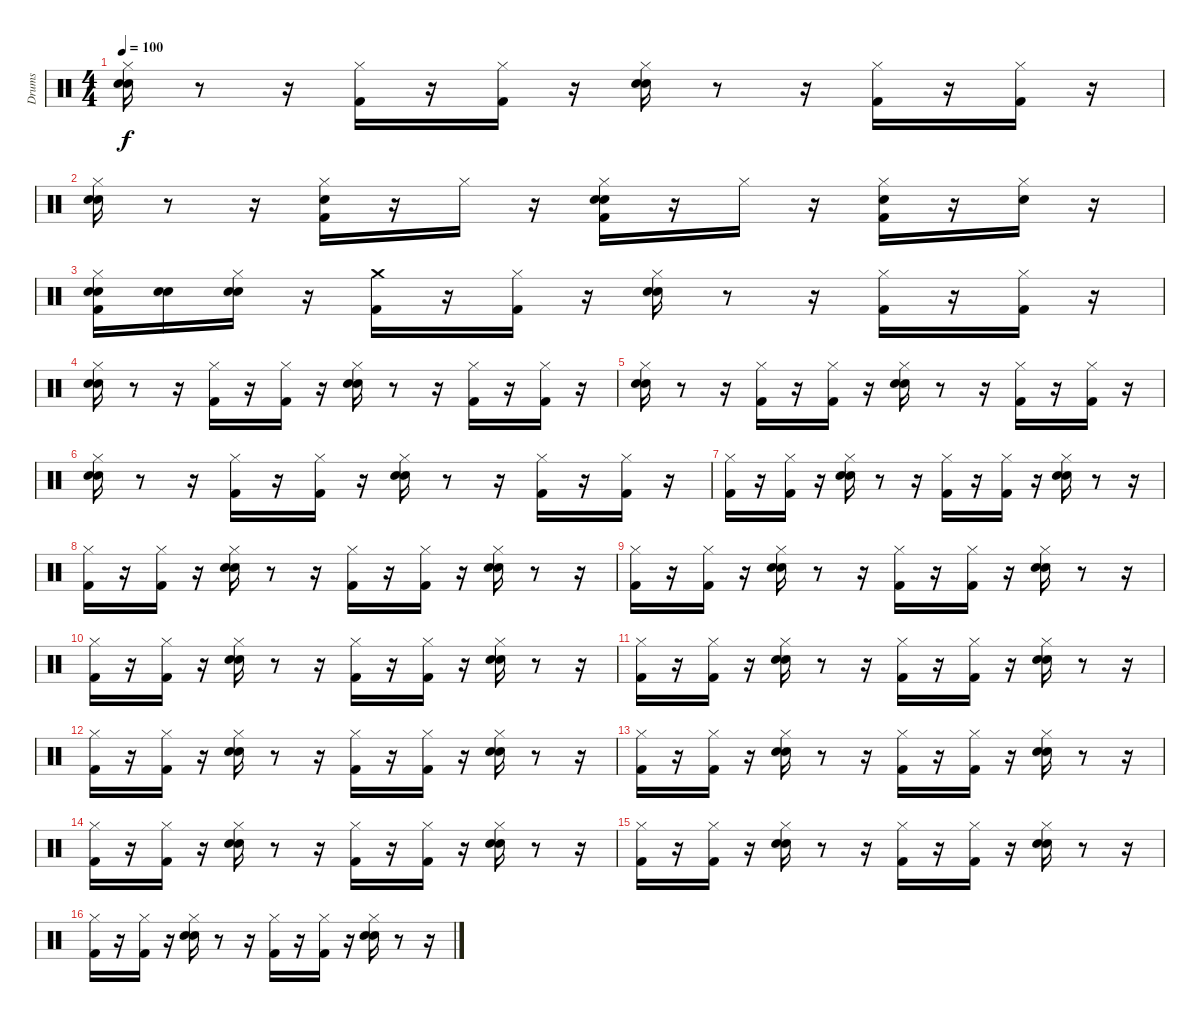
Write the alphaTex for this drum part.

\track ("Drums" "Drums") {instrument percussion}
\staff {score}
\articulation defaults
\ts (4 4)
\tempo 100
\clef neutral
\ks c
("Snare (hit) 2" "Hi-Hat (closed)" "Hand Clap (hit)").16{dy f} r.8 r.16 ("Hi-Hat (closed)" "Kick (hit) 2").16 r.16 ("Kick (hit) 2" "Hi-Hat (closed)").16 r.16 ("Snare (hit) 2" "Hand Clap (hit)" "Hi-Hat (closed)").16 r.8 r.16 ("Hi-Hat (closed)" "Kick (hit) 2").16 r.16 ("Kick (hit) 2" "Hi-Hat (closed)").16 r.16 |
("Snare (hit) 2" "Hi-Hat (closed)" "Hand Clap (hit)").16 r.8 r.16 ("Hi-Hat (closed)" "Snare (hit) 2" "Kick (hit) 2").16 r.16 "Hi-Hat (closed)".16 r.16 ("Hi-Hat (closed)" "Hand Clap (hit)" "Kick (hit) 2" "Snare (hit) 2").16 r.16 "Hi-Hat (closed)".16 r.16 ("Hi-Hat (closed)" "Snare (hit) 2" "Kick (hit) 2").16 r.16 ("Snare (hit) 2" "Hi-Hat (closed)").16 r.16 |
("Hand Clap (hit)" "Kick (hit) 2" "Hi-Hat (closed)" "Snare (hit) 2").16 ("Snare (hit)" "Snare (hit) 2").16 ("Snare (hit)" "Snare (hit) 2" "Hi-Hat (closed)").16 r.16 ("Crash medium (hit)" "Kick (hit) 2").16 r.16 ("Hi-Hat (closed)" "Kick (hit) 2").16 r.16 ("Hand Clap (hit)" "Hi-Hat (closed)" "Snare (hit) 2").16 r.8 r.16 ("Kick (hit) 2" "Hi-Hat (closed)").16 r.16 ("Kick (hit) 2" "Hi-Hat (closed)").16 r.16 |
("Hi-Hat (closed)" "Hand Clap (hit)" "Snare (hit) 2").16 r.8 r.16 ("Hi-Hat (closed)" "Kick (hit) 2").16 r.16 ("Kick (hit) 2" "Hi-Hat (closed)").16 r.16 ("Snare (hit) 2" "Hi-Hat (closed)" "Hand Clap (hit)").16 r.8 r.16 ("Hi-Hat (closed)" "Kick (hit) 2").16 r.16 ("Hi-Hat (closed)" "Kick (hit) 2").16 r.16 |
("Snare (hit) 2" "Hand Clap (hit)" "Hi-Hat (closed)").16 r.8 r.16 ("Hi-Hat (closed)" "Kick (hit) 2").16 r.16 ("Kick (hit) 2" "Hi-Hat (closed)").16 r.16 ("Snare (hit) 2" "Hi-Hat (closed)" "Hand Clap (hit)").16 r.8 r.16 ("Kick (hit) 2" "Hi-Hat (closed)").16 r.16 ("Hi-Hat (closed)" "Kick (hit) 2").16 r.16 |
("Hi-Hat (closed)" "Snare (hit) 2" "Hand Clap (hit)").16 r.8 r.16 ("Hi-Hat (closed)" "Kick (hit) 2").16 r.16 ("Kick (hit) 2" "Hi-Hat (closed)").16 r.16 ("Hi-Hat (closed)" "Hand Clap (hit)" "Snare (hit) 2").16 r.8 r.16 ("Hi-Hat (closed)" "Kick (hit) 2").16 r.16 ("Kick (hit) 2" "Hi-Hat (closed)").16 r.16 |
("Hi-Hat (closed)" "Kick (hit) 2").16 r.16 ("Hi-Hat (closed)" "Kick (hit) 2").16 r.16 ("Snare (hit) 2" "Hand Clap (hit)" "Hi-Hat (closed)").16 r.8 r.16 ("Kick (hit) 2" "Hi-Hat (closed)").16 r.16 ("Hi-Hat (closed)" "Kick (hit) 2").16 r.16 ("Hi-Hat (closed)" "Snare (hit) 2" "Hand Clap (hit)").16 r.8 r.16 |
("Kick (hit) 2" "Hi-Hat (closed)").16 r.16 ("Kick (hit) 2" "Hi-Hat (closed)").16 r.16 ("Hi-Hat (closed)" "Snare (hit) 2" "Hand Clap (hit)").16 r.8 r.16 ("Kick (hit) 2" "Hi-Hat (closed)").16 r.16 ("Kick (hit) 2" "Hi-Hat (closed)").16 r.16 ("Hand Clap (hit)" "Snare (hit) 2" "Hi-Hat (closed)").16 r.8 r.16 |
("Kick (hit) 2" "Hi-Hat (closed)").16 r.16 ("Hi-Hat (closed)" "Kick (hit) 2").16 r.16 ("Hi-Hat (closed)" "Hand Clap (hit)" "Snare (hit) 2").16 r.8 r.16 ("Hi-Hat (closed)" "Kick (hit) 2").16 r.16 ("Hi-Hat (closed)" "Kick (hit) 2").16 r.16 ("Snare (hit) 2" "Hand Clap (hit)" "Hi-Hat (closed)").16 r.8 r.16 |
("Kick (hit) 2" "Hi-Hat (closed)").16 r.16 ("Kick (hit) 2" "Hi-Hat (closed)").16 r.16 ("Snare (hit) 2" "Hand Clap (hit)" "Hi-Hat (closed)").16 r.8 r.16 ("Hi-Hat (closed)" "Kick (hit) 2").16 r.16 ("Kick (hit) 2" "Hi-Hat (closed)").16 r.16 ("Hi-Hat (closed)" "Snare (hit) 2" "Hand Clap (hit)").16 r.8 r.16 |
("Hi-Hat (closed)" "Kick (hit) 2").16 r.16 ("Hi-Hat (closed)" "Kick (hit) 2").16 r.16 ("Hand Clap (hit)" "Hi-Hat (closed)" "Snare (hit) 2").16 r.8 r.16 ("Hi-Hat (closed)" "Kick (hit) 2").16 r.16 ("Hi-Hat (closed)" "Kick (hit) 2").16 r.16 ("Hand Clap (hit)" "Snare (hit) 2" "Hi-Hat (closed)").16 r.8 r.16 |
("Hi-Hat (closed)" "Kick (hit) 2").16 r.16 ("Hi-Hat (closed)" "Kick (hit) 2").16 r.16 ("Hand Clap (hit)" "Snare (hit) 2" "Hi-Hat (closed)").16 r.8 r.16 ("Hi-Hat (closed)" "Kick (hit) 2").16 r.16 ("Hi-Hat (closed)" "Kick (hit) 2").16 r.16 ("Hand Clap (hit)" "Snare (hit) 2" "Hi-Hat (closed)").16 r.8 r.16 |
("Kick (hit) 2" "Hi-Hat (closed)").16 r.16 ("Hi-Hat (closed)" "Kick (hit) 2").16 r.16 ("Hand Clap (hit)" "Hi-Hat (closed)" "Snare (hit) 2").16 r.8 r.16 ("Hi-Hat (closed)" "Kick (hit) 2").16 r.16 ("Hi-Hat (closed)" "Kick (hit) 2").16 r.16 ("Hand Clap (hit)" "Hi-Hat (closed)" "Snare (hit) 2").16 r.8 r.16 |
("Hi-Hat (closed)" "Kick (hit) 2").16 r.16 ("Kick (hit) 2" "Hi-Hat (closed)").16 r.16 ("Hand Clap (hit)" "Snare (hit) 2" "Hi-Hat (closed)").16 r.8 r.16 ("Kick (hit) 2" "Hi-Hat (closed)").16 r.16 ("Kick (hit) 2" "Hi-Hat (closed)").16 r.16 ("Hi-Hat (closed)" "Hand Clap (hit)" "Snare (hit) 2").16 r.8 r.16 |
("Kick (hit) 2" "Hi-Hat (closed)").16 r.16 ("Kick (hit) 2" "Hi-Hat (closed)").16 r.16 ("Snare (hit) 2" "Hand Clap (hit)" "Hi-Hat (closed)").16 r.8 r.16 ("Kick (hit) 2" "Hi-Hat (closed)").16 r.16 ("Hi-Hat (closed)" "Kick (hit) 2").16 r.16 ("Hand Clap (hit)" "Snare (hit) 2" "Hi-Hat (closed)").16 r.8 r.16 |
("Hi-Hat (closed)" "Kick (hit) 2").16 r.16 ("Hi-Hat (closed)" "Kick (hit) 2").16 r.16 ("Snare (hit) 2" "Hand Clap (hit)" "Hi-Hat (closed)").16 r.8 r.16 ("Hi-Hat (closed)" "Kick (hit) 2").16 r.16 ("Hi-Hat (closed)" "Kick (hit) 2").16 r.16 ("Hand Clap (hit)" "Snare (hit) 2" "Hi-Hat (closed)").16 r.8 r.16
